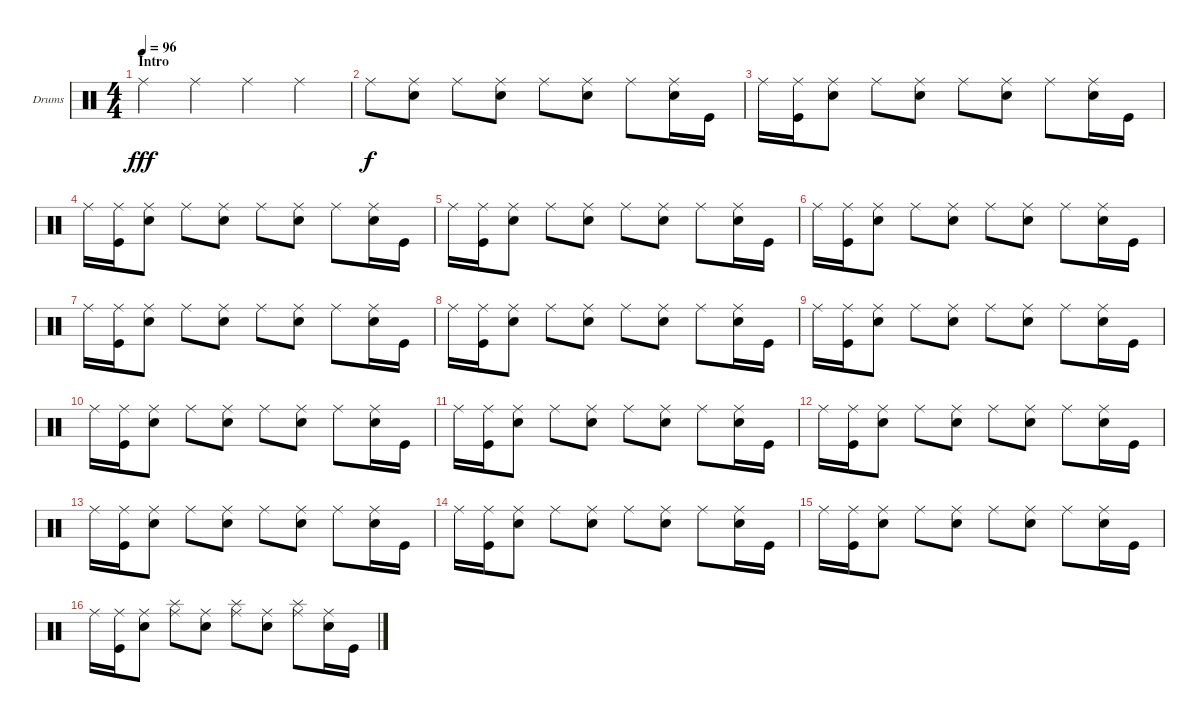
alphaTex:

\defaultSystemsLayout 4
\bracketExtendMode groupsimilarinstruments
\firstSystemTrackNameOrientation horizontal
\otherSystemsTrackNameOrientation horizontal
\track ("Howard" "Drums") {instrument percussion}
\staff {score}
\articulation defaults
\ts (4 4)
\section ("" "Intro")
\tempo 96
\clef neutral
\ks c "Ride (middle)".4{dy fff} "Ride (middle)".4 "Ride (middle)".4 "Ride (middle)".4
|
"Ride (middle)".8{dy f} ("Ride (middle)" "Snare (hit) 2").8 "Ride (middle)".8 ("Ride (middle)" "Snare (hit) 2").8 "Ride (middle)".8 ("Ride (middle)" "Snare (hit) 2").8 "Ride (middle)".8 ("Ride (middle)" "Snare (hit) 2").16 "Kick (hit)".16 |
"Ride (middle)".16 ("Ride (middle)" "Kick (hit)").16 ("Ride (middle)" "Snare (hit) 2").8 "Ride (middle)".8 ("Ride (middle)" "Snare (hit) 2").8 "Ride (middle)".8 ("Ride (middle)" "Snare (hit) 2").8 "Ride (middle)".8 ("Ride (middle)" "Snare (hit) 2").16 "Kick (hit)".16 |
"Ride (middle)".16 ("Ride (middle)" "Kick (hit)").16 ("Ride (middle)" "Snare (hit) 2").8 "Ride (middle)".8 ("Ride (middle)" "Snare (hit) 2").8 "Ride (middle)".8 ("Ride (middle)" "Snare (hit) 2").8 "Ride (middle)".8 ("Ride (middle)" "Snare (hit) 2").16 "Kick (hit)".16 |
"Ride (middle)".16 ("Ride (middle)" "Kick (hit)").16 ("Ride (middle)" "Snare (hit) 2").8 "Ride (middle)".8 ("Ride (middle)" "Snare (hit) 2").8 "Ride (middle)".8 ("Ride (middle)" "Snare (hit) 2").8 "Ride (middle)".8 ("Ride (middle)" "Snare (hit) 2").16 "Kick (hit)".16 |
"Ride (middle)".16 ("Ride (middle)" "Kick (hit)").16 ("Ride (middle)" "Snare (hit) 2").8 "Ride (middle)".8 ("Ride (middle)" "Snare (hit) 2").8 "Ride (middle)".8 ("Ride (middle)" "Snare (hit) 2").8 "Ride (middle)".8 ("Ride (middle)" "Snare (hit) 2").16 "Kick (hit)".16 |
"Ride (middle)".16 ("Ride (middle)" "Kick (hit)").16 ("Ride (middle)" "Snare (hit) 2").8 "Ride (middle)".8 ("Ride (middle)" "Snare (hit) 2").8 "Ride (middle)".8 ("Ride (middle)" "Snare (hit) 2").8 "Ride (middle)".8 ("Ride (middle)" "Snare (hit) 2").16 "Kick (hit)".16 |
"Ride (middle)".16 ("Ride (middle)" "Kick (hit)").16 ("Ride (middle)" "Snare (hit) 2").8 "Ride (middle)".8 ("Ride (middle)" "Snare (hit) 2").8 "Ride (middle)".8 ("Ride (middle)" "Snare (hit) 2").8 "Ride (middle)".8 ("Ride (middle)" "Snare (hit) 2").16 "Kick (hit)".16 |
"Ride (middle)".16 ("Ride (middle)" "Kick (hit)").16 ("Ride (middle)" "Snare (hit) 2").8 "Ride (middle)".8 ("Ride (middle)" "Snare (hit) 2").8 "Ride (middle)".8 ("Ride (middle)" "Snare (hit) 2").8 "Ride (middle)".8 ("Ride (middle)" "Snare (hit) 2").16 "Kick (hit)".16 |
"Ride (middle)".16 ("Ride (middle)" "Kick (hit)").16 ("Ride (middle)" "Snare (hit) 2").8 "Ride (middle)".8 ("Ride (middle)" "Snare (hit) 2").8 "Ride (middle)".8 ("Ride (middle)" "Snare (hit) 2").8 "Ride (middle)".8 ("Ride (middle)" "Snare (hit) 2").16 "Kick (hit)".16 |
"Ride (middle)".16 ("Ride (middle)" "Kick (hit)").16 ("Ride (middle)" "Snare (hit) 2").8 "Ride (middle)".8 ("Ride (middle)" "Snare (hit) 2").8 "Ride (middle)".8 ("Ride (middle)" "Snare (hit) 2").8 "Ride (middle)".8 ("Ride (middle)" "Snare (hit) 2").16 "Kick (hit)".16 |
"Ride (middle)".16 ("Ride (middle)" "Kick (hit)").16 ("Ride (middle)" "Snare (hit) 2").8 "Ride (middle)".8 ("Ride (middle)" "Snare (hit) 2").8 "Ride (middle)".8 ("Ride (middle)" "Snare (hit) 2").8 "Ride (middle)".8 ("Ride (middle)" "Snare (hit) 2").16 "Kick (hit)".16 |
"Ride (middle)".16 ("Ride (middle)" "Kick (hit)").16 ("Ride (middle)" "Snare (hit) 2").8 "Ride (middle)".8 ("Ride (middle)" "Snare (hit) 2").8 "Ride (middle)".8 ("Ride (middle)" "Snare (hit) 2").8 "Ride (middle)".8 ("Ride (middle)" "Snare (hit) 2").16 "Kick (hit)".16 |
"Ride (middle)".16 ("Ride (middle)" "Kick (hit)").16 ("Ride (middle)" "Snare (hit) 2").8 "Ride (middle)".8 ("Ride (middle)" "Snare (hit) 2").8 "Ride (middle)".8 ("Ride (middle)" "Snare (hit) 2").8 "Ride (middle)".8 ("Ride (middle)" "Snare (hit) 2").16 "Kick (hit)".16 |
"Ride (middle)".16 ("Ride (middle)" "Kick (hit)").16 ("Ride (middle)" "Snare (hit) 2").8 "Ride (middle)".8 ("Ride (middle)" "Snare (hit) 2").8 "Ride (middle)".8 ("Ride (middle)" "Snare (hit) 2").8 "Ride (middle)".8 ("Ride (middle)" "Snare (hit) 2").16 "Kick (hit)".16 |
"Ride (middle)".16 ("Ride (middle)" "Kick (hit)").16 ("Ride (middle)" "Snare (hit) 2").8 ("Ride (middle)" "Splash (hit)").8 ("Ride (middle)" "Snare (hit) 2").8 ("Ride (middle)" "Splash (hit)").8 ("Ride (middle)" "Snare (hit) 2").8 ("Ride (middle)" "Splash (hit)").8 ("Ride (middle)" "Snare (hit) 2").16 "Kick (hit)".16
